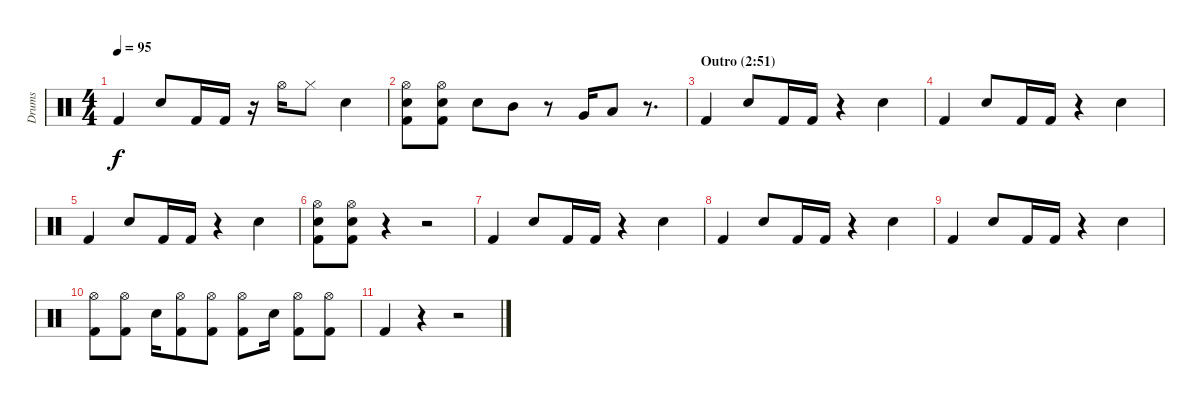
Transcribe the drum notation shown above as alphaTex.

\track ("Drums" "Drums") {instrument percussion}
\staff {score}
\articulation defaults
\ts (4 4)
\tempo 95
\clef neutral
\ks c "Kick (hit) 2".4{dy f} "Snare (hit) 2".8 "Kick (hit) 2".16 "Kick (hit) 2".16
r.16 "Hi-Hat (open)".16 "Hi-Hat (closed)".8 "Snare (hit) 2".4 |
("Hi-Hat (open)" "Snare (hit) 2" "Kick (hit) 2").8 ("Hi-Hat (open)" "Snare (hit) 2" "Kick (hit) 2").8 "Snare (hit) 2".8 "Mid Tom (hit)".8 r.8 "Very Low Tom (hit)".16 "Low Floor Tom (hit)".8 r.8{d} |
\section ("" "Outro (2:51)")
"Kick (hit) 2".4 "Snare (hit) 2".8 "Kick (hit) 2".16 "Kick (hit) 2".16 r.4 "Snare (hit) 2".4 |
"Kick (hit) 2".4 "Snare (hit) 2".8 "Kick (hit) 2".16 "Kick (hit) 2".16 r.4 "Snare (hit) 2".4 |
"Kick (hit) 2".4 "Snare (hit) 2".8 "Kick (hit) 2".16 "Kick (hit) 2".16 r.4 "Snare (hit) 2".4 |
("Hi-Hat (open)" "Snare (hit) 2" "Kick (hit) 2").8 ("Hi-Hat (open)" "Snare (hit) 2" "Kick (hit) 2").8 r.4 r.2 |
"Kick (hit) 2".4 "Snare (hit) 2".8 "Kick (hit) 2".16 "Kick (hit) 2".16 r.4 "Snare (hit) 2".4 |
"Kick (hit) 2".4 "Snare (hit) 2".8 "Kick (hit) 2".16 "Kick (hit) 2".16 r.4 "Snare (hit) 2".4 |
"Kick (hit) 2".4 "Snare (hit) 2".8 "Kick (hit) 2".16 "Kick (hit) 2".16 r.4 "Snare (hit) 2".4 |
("Hi-Hat (open)" "Kick (hit) 2").8 ("Hi-Hat (open)" "Kick (hit) 2").8 "Snare (hit) 2".16 ("Hi-Hat (open)" "Kick (hit) 2").8 ("Hi-Hat (open)" "Kick (hit) 2").8 ("Hi-Hat (open)" "Kick (hit) 2").8 "Snare (hit) 2".16 ("Hi-Hat (open)" "Kick (hit) 2").8 ("Hi-Hat (open)" "Kick (hit) 2").8 |
"Kick (hit) 2".4 r.4 r.2
